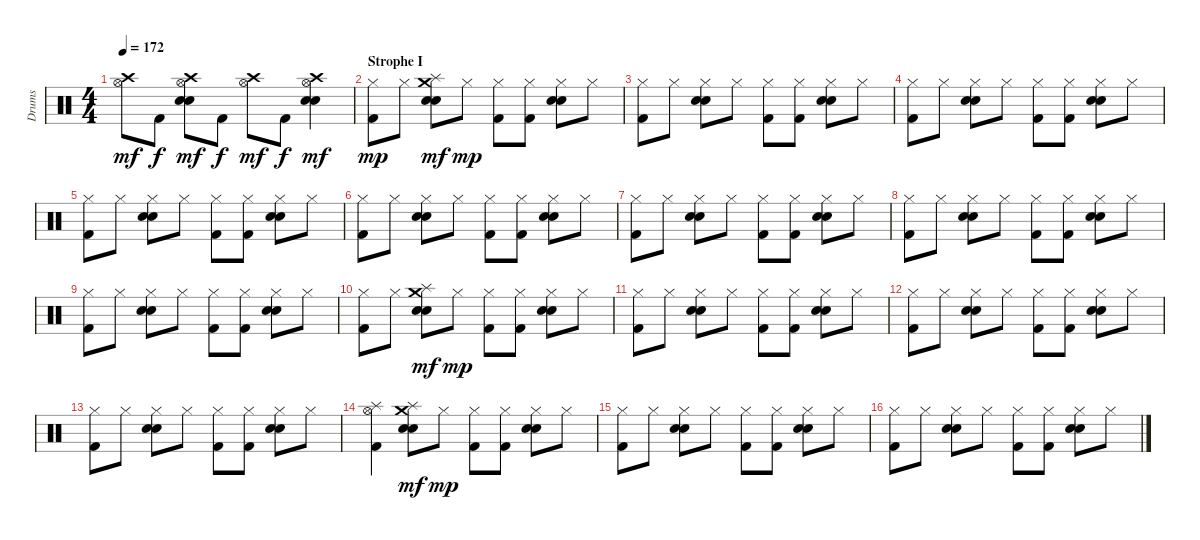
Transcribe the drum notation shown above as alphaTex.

\track ("Drums" "Drums") {instrument percussion}
\staff {score}
\articulation defaults
\ts (4 4)
\tempo 172
\clef neutral
\ks c
("Crash high (hit)" "Hi-Hat (open)").8{dy mf} "Kick (hit) 2".8{dy f} ("Crash high (hit)" "Hi-Hat (open)" "Electric Snare (hit)" "Snare (hit) 2").8{dy mf} "Kick (hit) 2".8{dy f} ("Crash high (hit)" "Hi-Hat (open)").8{dy mf} "Kick (hit) 2".8{dy f} ("Crash high (hit)" "Hi-Hat (open)" "Electric Snare (hit)" "Snare (hit) 2").4{dy mf} |
\section ("" "Strophe I")
("Hi-Hat (closed)" "Kick (hit) 2").8{dy mp} "Hi-Hat (closed)".8 ("Splash (hit)" "Crash medium (hit)" "Snare (hit) 2" "Electric Snare (hit)").8{dy mf} "Hi-Hat (closed)".8{dy mp} ("Hi-Hat (closed)" "Kick (hit) 2").8 ("Hi-Hat (closed)" "Kick (hit) 2").8 ("Hi-Hat (closed)" "Snare (hit) 2" "Electric Snare (hit)").8 "Hi-Hat (closed)".8 |
("Hi-Hat (closed)" "Kick (hit) 2").8 "Hi-Hat (closed)".8 ("Hi-Hat (closed)" "Snare (hit) 2" "Electric Snare (hit)").8 "Hi-Hat (closed)".8 ("Hi-Hat (closed)" "Kick (hit) 2").8 ("Hi-Hat (closed)" "Kick (hit) 2").8 ("Hi-Hat (closed)" "Snare (hit) 2" "Electric Snare (hit)").8 "Hi-Hat (closed)".8 |
("Hi-Hat (closed)" "Kick (hit) 2").8 "Hi-Hat (closed)".8 ("Hi-Hat (closed)" "Snare (hit) 2" "Electric Snare (hit)").8 "Hi-Hat (closed)".8 ("Hi-Hat (closed)" "Kick (hit) 2").8 ("Hi-Hat (closed)" "Kick (hit) 2").8 ("Hi-Hat (closed)" "Snare (hit) 2" "Electric Snare (hit)").8 "Hi-Hat (closed)".8 |
("Hi-Hat (closed)" "Kick (hit) 2").8 "Hi-Hat (closed)".8 ("Hi-Hat (closed)" "Snare (hit) 2" "Electric Snare (hit)").8 "Hi-Hat (closed)".8 ("Hi-Hat (closed)" "Kick (hit) 2").8 ("Hi-Hat (closed)" "Kick (hit) 2").8 ("Hi-Hat (closed)" "Snare (hit) 2" "Electric Snare (hit)").8 "Hi-Hat (closed)".8 |
("Hi-Hat (closed)" "Kick (hit) 2").8 "Hi-Hat (closed)".8 ("Hi-Hat (closed)" "Snare (hit) 2" "Electric Snare (hit)").8 "Hi-Hat (closed)".8 ("Hi-Hat (closed)" "Kick (hit) 2").8 ("Hi-Hat (closed)" "Kick (hit) 2").8 ("Hi-Hat (closed)" "Snare (hit) 2" "Electric Snare (hit)").8 "Hi-Hat (closed)".8 |
("Hi-Hat (closed)" "Kick (hit) 2").8 "Hi-Hat (closed)".8 ("Hi-Hat (closed)" "Snare (hit) 2" "Electric Snare (hit)").8 "Hi-Hat (closed)".8 ("Hi-Hat (closed)" "Kick (hit) 2").8 ("Hi-Hat (closed)" "Kick (hit) 2").8 ("Hi-Hat (closed)" "Snare (hit) 2" "Electric Snare (hit)").8 "Hi-Hat (closed)".8 |
("Hi-Hat (closed)" "Kick (hit) 2").8 "Hi-Hat (closed)".8 ("Hi-Hat (closed)" "Snare (hit) 2" "Electric Snare (hit)").8 "Hi-Hat (closed)".8 ("Hi-Hat (closed)" "Kick (hit) 2").8 ("Hi-Hat (closed)" "Kick (hit) 2").8 ("Hi-Hat (closed)" "Snare (hit) 2" "Electric Snare (hit)").8 "Hi-Hat (closed)".8 |
("Hi-Hat (closed)" "Kick (hit) 2").8 "Hi-Hat (closed)".8 ("Hi-Hat (closed)" "Snare (hit) 2" "Electric Snare (hit)").8 "Hi-Hat (closed)".8 ("Hi-Hat (closed)" "Kick (hit) 2").8 ("Hi-Hat (closed)" "Kick (hit) 2").8 ("Hi-Hat (closed)" "Snare (hit) 2" "Electric Snare (hit)").8 "Hi-Hat (closed)".8 |
("Hi-Hat (closed)" "Kick (hit) 2").8 "Hi-Hat (closed)".8 ("Splash (hit)" "Crash medium (hit)" "Snare (hit) 2" "Electric Snare (hit)").8{dy mf} "Hi-Hat (closed)".8{dy mp} ("Hi-Hat (closed)" "Kick (hit) 2").8 ("Hi-Hat (closed)" "Kick (hit) 2").8 ("Hi-Hat (closed)" "Snare (hit) 2" "Electric Snare (hit)").8 "Hi-Hat (closed)".8 |
("Hi-Hat (closed)" "Kick (hit) 2").8 "Hi-Hat (closed)".8 ("Hi-Hat (closed)" "Snare (hit) 2" "Electric Snare (hit)").8 "Hi-Hat (closed)".8 ("Hi-Hat (closed)" "Kick (hit) 2").8 ("Hi-Hat (closed)" "Kick (hit) 2").8 ("Hi-Hat (closed)" "Snare (hit) 2" "Electric Snare (hit)").8 "Hi-Hat (closed)".8 |
("Hi-Hat (closed)" "Kick (hit) 2").8 "Hi-Hat (closed)".8 ("Hi-Hat (closed)" "Snare (hit) 2" "Electric Snare (hit)").8 "Hi-Hat (closed)".8 ("Hi-Hat (closed)" "Kick (hit) 2").8 ("Hi-Hat (closed)" "Kick (hit) 2").8 ("Hi-Hat (closed)" "Snare (hit) 2" "Electric Snare (hit)").8 "Hi-Hat (closed)".8 |
("Hi-Hat (closed)" "Kick (hit) 2").8 "Hi-Hat (closed)".8 ("Hi-Hat (closed)" "Snare (hit) 2" "Electric Snare (hit)").8 "Hi-Hat (closed)".8 ("Hi-Hat (closed)" "Kick (hit) 2").8 ("Hi-Hat (closed)" "Kick (hit) 2").8 ("Hi-Hat (closed)" "Snare (hit) 2" "Electric Snare (hit)").8 "Hi-Hat (closed)".8 |
("Hi-Hat (open)" "Splash (hit)" "Kick (hit) 2").4 ("Splash (hit)" "Crash medium (hit)" "Snare (hit) 2" "Electric Snare (hit)").8{dy mf} "Hi-Hat (closed)".8{dy mp} ("Hi-Hat (closed)" "Kick (hit) 2").8 ("Hi-Hat (closed)" "Kick (hit) 2").8 ("Hi-Hat (closed)" "Snare (hit) 2" "Electric Snare (hit)").8 "Hi-Hat (closed)".8 |
("Hi-Hat (closed)" "Kick (hit) 2").8 "Hi-Hat (closed)".8 ("Hi-Hat (closed)" "Snare (hit) 2" "Electric Snare (hit)").8 "Hi-Hat (closed)".8 ("Hi-Hat (closed)" "Kick (hit) 2").8 ("Hi-Hat (closed)" "Kick (hit) 2").8 ("Hi-Hat (closed)" "Snare (hit) 2" "Electric Snare (hit)").8 "Hi-Hat (closed)".8 |
("Hi-Hat (closed)" "Kick (hit) 2").8 "Hi-Hat (closed)".8 ("Hi-Hat (closed)" "Snare (hit) 2" "Electric Snare (hit)").8 "Hi-Hat (closed)".8 ("Hi-Hat (closed)" "Kick (hit) 2").8 ("Hi-Hat (closed)" "Kick (hit) 2").8 ("Hi-Hat (closed)" "Snare (hit) 2" "Electric Snare (hit)").8 "Hi-Hat (closed)".8
